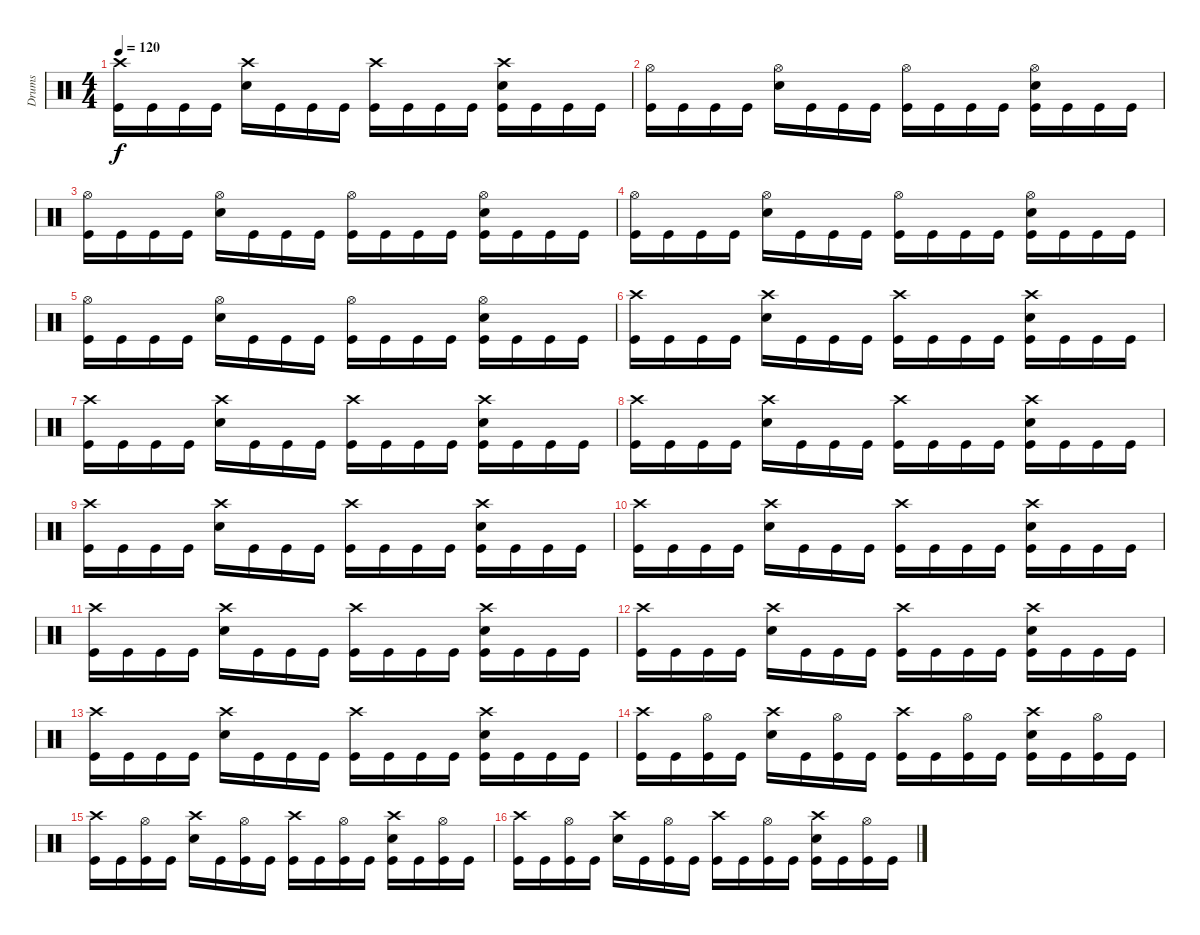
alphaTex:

\track ("Drums" "Drums") {instrument percussion}
\staff {score}
\articulation defaults
\ts (4 4)
\tempo 120
\clef neutral
\ks c
("Crash high (hit)" "Kick (hit)").16{dy f} "Kick (hit)".16 "Kick (hit)".16 "Kick (hit)".16 ("Crash high (hit)" "Snare (hit) 2").16 "Kick (hit)".16 "Kick (hit)".16 "Kick (hit)".16 ("Crash high (hit)" "Kick (hit)").16 "Kick (hit)".16 "Kick (hit)".16 "Kick (hit)".16 ("Crash high (hit)" "Snare (hit) 2" "Kick (hit)").16 "Kick (hit)".16 "Kick (hit)".16 "Kick (hit)".16 |
("Hi-Hat (open)" "Kick (hit)").16 "Kick (hit)".16 "Kick (hit)".16 "Kick (hit)".16 ("Hi-Hat (open)" "Snare (hit) 2").16 "Kick (hit)".16 "Kick (hit)".16 "Kick (hit)".16 ("Hi-Hat (open)" "Kick (hit)").16 "Kick (hit)".16 "Kick (hit)".16 "Kick (hit)".16 ("Hi-Hat (open)" "Snare (hit) 2" "Kick (hit)").16 "Kick (hit)".16 "Kick (hit)".16 "Kick (hit)".16 |
("Hi-Hat (open)" "Kick (hit)").16 "Kick (hit)".16 "Kick (hit)".16 "Kick (hit)".16 ("Hi-Hat (open)" "Snare (hit) 2").16 "Kick (hit)".16 "Kick (hit)".16 "Kick (hit)".16 ("Hi-Hat (open)" "Kick (hit)").16 "Kick (hit)".16 "Kick (hit)".16 "Kick (hit)".16 ("Hi-Hat (open)" "Snare (hit) 2" "Kick (hit)").16 "Kick (hit)".16 "Kick (hit)".16 "Kick (hit)".16 |
("Hi-Hat (open)" "Kick (hit)").16 "Kick (hit)".16 "Kick (hit)".16 "Kick (hit)".16 ("Hi-Hat (open)" "Snare (hit) 2").16 "Kick (hit)".16 "Kick (hit)".16 "Kick (hit)".16 ("Hi-Hat (open)" "Kick (hit)").16 "Kick (hit)".16 "Kick (hit)".16 "Kick (hit)".16 ("Hi-Hat (open)" "Snare (hit) 2" "Kick (hit)").16 "Kick (hit)".16 "Kick (hit)".16 "Kick (hit)".16 |
("Hi-Hat (open)" "Kick (hit)").16 "Kick (hit)".16 "Kick (hit)".16 "Kick (hit)".16 ("Hi-Hat (open)" "Snare (hit) 2").16 "Kick (hit)".16 "Kick (hit)".16 "Kick (hit)".16 ("Hi-Hat (open)" "Kick (hit)").16 "Kick (hit)".16 "Kick (hit)".16 "Kick (hit)".16 ("Hi-Hat (open)" "Snare (hit) 2" "Kick (hit)").16 "Kick (hit)".16 "Kick (hit)".16 "Kick (hit)".16 |
("Crash high (hit)" "Kick (hit)").16 "Kick (hit)".16 "Kick (hit)".16 "Kick (hit)".16 ("Crash high (hit)" "Snare (hit) 2").16 "Kick (hit)".16 "Kick (hit)".16 "Kick (hit)".16 ("Crash high (hit)" "Kick (hit)").16 "Kick (hit)".16 "Kick (hit)".16 "Kick (hit)".16 ("Crash high (hit)" "Snare (hit) 2" "Kick (hit)").16 "Kick (hit)".16 "Kick (hit)".16 "Kick (hit)".16 |
("Crash high (hit)" "Kick (hit)").16 "Kick (hit)".16 "Kick (hit)".16 "Kick (hit)".16 ("Crash high (hit)" "Snare (hit) 2").16 "Kick (hit)".16 "Kick (hit)".16 "Kick (hit)".16 ("Crash high (hit)" "Kick (hit)").16 "Kick (hit)".16 "Kick (hit)".16 "Kick (hit)".16 ("Crash high (hit)" "Snare (hit) 2" "Kick (hit)").16 "Kick (hit)".16 "Kick (hit)".16 "Kick (hit)".16 |
("Crash high (hit)" "Kick (hit)").16 "Kick (hit)".16 "Kick (hit)".16 "Kick (hit)".16 ("Crash high (hit)" "Snare (hit) 2").16 "Kick (hit)".16 "Kick (hit)".16 "Kick (hit)".16 ("Crash high (hit)" "Kick (hit)").16 "Kick (hit)".16 "Kick (hit)".16 "Kick (hit)".16 ("Crash high (hit)" "Snare (hit) 2" "Kick (hit)").16 "Kick (hit)".16 "Kick (hit)".16 "Kick (hit)".16 |
("Crash high (hit)" "Kick (hit)").16 "Kick (hit)".16 "Kick (hit)".16 "Kick (hit)".16 ("Crash high (hit)" "Snare (hit) 2").16 "Kick (hit)".16 "Kick (hit)".16 "Kick (hit)".16 ("Crash high (hit)" "Kick (hit)").16 "Kick (hit)".16 "Kick (hit)".16 "Kick (hit)".16 ("Crash high (hit)" "Snare (hit) 2" "Kick (hit)").16 "Kick (hit)".16 "Kick (hit)".16 "Kick (hit)".16 |
("Crash high (hit)" "Kick (hit)").16 "Kick (hit)".16 "Kick (hit)".16 "Kick (hit)".16 ("Crash high (hit)" "Snare (hit) 2").16 "Kick (hit)".16 "Kick (hit)".16 "Kick (hit)".16 ("Crash high (hit)" "Kick (hit)").16 "Kick (hit)".16 "Kick (hit)".16 "Kick (hit)".16 ("Crash high (hit)" "Snare (hit) 2" "Kick (hit)").16 "Kick (hit)".16 "Kick (hit)".16 "Kick (hit)".16 |
("Crash high (hit)" "Kick (hit)").16 "Kick (hit)".16 "Kick (hit)".16 "Kick (hit)".16 ("Crash high (hit)" "Snare (hit) 2").16 "Kick (hit)".16 "Kick (hit)".16 "Kick (hit)".16 ("Crash high (hit)" "Kick (hit)").16 "Kick (hit)".16 "Kick (hit)".16 "Kick (hit)".16 ("Crash high (hit)" "Snare (hit) 2" "Kick (hit)").16 "Kick (hit)".16 "Kick (hit)".16 "Kick (hit)".16 |
("Crash high (hit)" "Kick (hit)").16 "Kick (hit)".16 "Kick (hit)".16 "Kick (hit)".16 ("Crash high (hit)" "Snare (hit) 2").16 "Kick (hit)".16 "Kick (hit)".16 "Kick (hit)".16 ("Crash high (hit)" "Kick (hit)").16 "Kick (hit)".16 "Kick (hit)".16 "Kick (hit)".16 ("Crash high (hit)" "Snare (hit) 2" "Kick (hit)").16 "Kick (hit)".16 "Kick (hit)".16 "Kick (hit)".16 |
("Crash high (hit)" "Kick (hit)").16 "Kick (hit)".16 "Kick (hit)".16 "Kick (hit)".16 ("Crash high (hit)" "Snare (hit) 2").16 "Kick (hit)".16 "Kick (hit)".16 "Kick (hit)".16 ("Crash high (hit)" "Kick (hit)").16 "Kick (hit)".16 "Kick (hit)".16 "Kick (hit)".16 ("Crash high (hit)" "Snare (hit) 2" "Kick (hit)").16 "Kick (hit)".16 "Kick (hit)".16 "Kick (hit)".16 |
("Crash high (hit)" "Kick (hit)").16 "Kick (hit)".16 ("Hi-Hat (open)" "Kick (hit)").16 "Kick (hit)".16 ("Crash high (hit)" "Snare (hit) 2").16 "Kick (hit)".16 ("Hi-Hat (open)" "Kick (hit)").16 "Kick (hit)".16 ("Crash high (hit)" "Kick (hit)").16 "Kick (hit)".16 ("Hi-Hat (open)" "Kick (hit)").16 "Kick (hit)".16 ("Crash high (hit)" "Snare (hit) 2" "Kick (hit)").16 "Kick (hit)".16 ("Hi-Hat (open)" "Kick (hit)").16 "Kick (hit)".16 |
("Crash high (hit)" "Kick (hit)").16 "Kick (hit)".16 ("Hi-Hat (open)" "Kick (hit)").16 "Kick (hit)".16 ("Crash high (hit)" "Snare (hit) 2").16 "Kick (hit)".16 ("Hi-Hat (open)" "Kick (hit)").16 "Kick (hit)".16 ("Crash high (hit)" "Kick (hit)").16 "Kick (hit)".16 ("Hi-Hat (open)" "Kick (hit)").16 "Kick (hit)".16 ("Crash high (hit)" "Snare (hit) 2" "Kick (hit)").16 "Kick (hit)".16 ("Hi-Hat (open)" "Kick (hit)").16 "Kick (hit)".16 |
("Crash high (hit)" "Kick (hit)").16 "Kick (hit)".16 ("Hi-Hat (open)" "Kick (hit)").16 "Kick (hit)".16 ("Crash high (hit)" "Snare (hit) 2").16 "Kick (hit)".16 ("Hi-Hat (open)" "Kick (hit)").16 "Kick (hit)".16 ("Crash high (hit)" "Kick (hit)").16 "Kick (hit)".16 ("Hi-Hat (open)" "Kick (hit)").16 "Kick (hit)".16 ("Crash high (hit)" "Snare (hit) 2" "Kick (hit)").16 "Kick (hit)".16 ("Hi-Hat (open)" "Kick (hit)").16 "Kick (hit)".16
